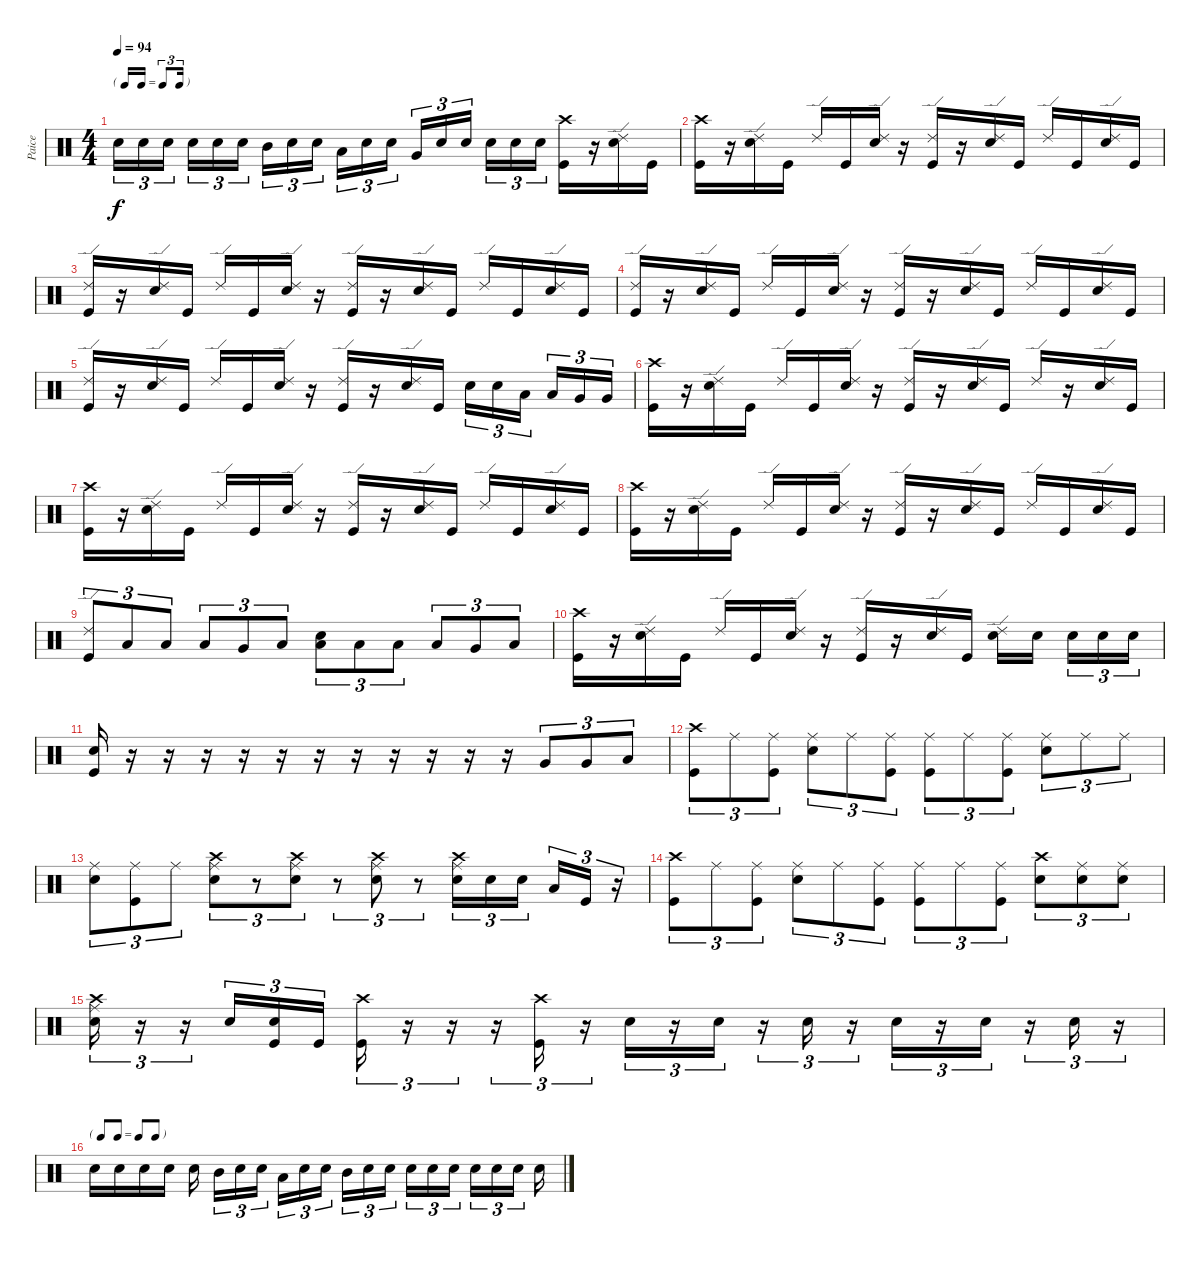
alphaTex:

\track ("Paice" "Paice") {instrument percussion}
\staff {score}
\articulation defaults
\ts (4 4)
\tf triplet16th
\tempo 94
\clef neutral
\ks c "Snare (hit) 2".16{tu (3 2) dy f} "Snare (hit) 2".16{tu (3 2)} "Snare (hit) 2".16{tu (3 2) beam splitsecondary} "Snare (hit) 2".16{tu (3 2)} "Snare (hit) 2".16{tu (3 2)} "Snare (hit) 2".16{tu (3 2)} "Mid Tom (hit)".16{tu (3 2)} "Snare (hit) 2".16{tu (3 2)} "Snare (hit) 2".16{tu (3 2) beam splitsecondary} "Low Tom (hit)".16{tu (3 2)} "Snare (hit) 2".16{tu (3 2)} "Snare (hit) 2".16{tu (3 2)} "Very Low Tom (hit)".16{tu (3 2)} "Snare (hit) 2".16{tu (3 2)} "Snare (hit) 2".16{tu (3 2) beam splitsecondary} "Snare (hit) 2".16{tu (3 2)} "Snare (hit) 2".16{tu (3 2)} "Snare (hit) 2".16{tu (3 2)}
("Kick (hit)" "Crash high (hit)").16 r.16 ("Ride (edge) 2" "Snare (hit) 2").16 "Kick (hit)".16 |
("Crash high (hit)" "Kick (hit)").16 r.16 ("Ride (edge) 2" "Snare (hit) 2").16 "Kick (hit)".16 "Ride (edge) 2".16 "Kick (hit)".16 ("Ride (edge) 2" "Snare (hit) 2").16 r.16 ("Ride (edge) 2" "Kick (hit)").16 r.16 ("Ride (edge) 2" "Snare (hit) 2").16 "Kick (hit)".16 "Ride (edge) 2".16 "Kick (hit)".16 ("Ride (edge) 2" "Snare (hit) 2").16 "Kick (hit)".16 |
("Ride (edge) 2" "Kick (hit)").16 r.16 ("Ride (edge) 2" "Snare (hit) 2").16 "Kick (hit)".16 "Ride (edge) 2".16 "Kick (hit)".16 ("Ride (edge) 2" "Snare (hit) 2").16 r.16 ("Ride (edge) 2" "Kick (hit)").16 r.16 ("Ride (edge) 2" "Snare (hit) 2").16 "Kick (hit)".16 "Ride (edge) 2".16 "Kick (hit)".16 ("Ride (edge) 2" "Snare (hit) 2").16 "Kick (hit)".16 |
("Ride (edge) 2" "Kick (hit)").16 r.16 ("Ride (edge) 2" "Snare (hit) 2").16 "Kick (hit)".16 "Ride (edge) 2".16 "Kick (hit)".16 ("Ride (edge) 2" "Snare (hit) 2").16 r.16 ("Ride (edge) 2" "Kick (hit)").16 r.16 ("Ride (edge) 2" "Snare (hit) 2").16 "Kick (hit)".16 "Ride (edge) 2".16 "Kick (hit)".16 ("Ride (edge) 2" "Snare (hit) 2").16 "Kick (hit)".16 |
("Ride (edge) 2" "Kick (hit)").16 r.16 ("Ride (edge) 2" "Snare (hit) 2").16 "Kick (hit)".16 "Ride (edge) 2".16 "Kick (hit)".16 ("Ride (edge) 2" "Snare (hit) 2").16 r.16 ("Ride (edge) 2" "Kick (hit)").16 r.16 ("Ride (edge) 2" "Snare (hit) 2").16 "Kick (hit)".16 "Snare (hit) 2".16{tu (3 2)} "Snare (hit) 2".16{tu (3 2)} "Low Tom (hit)".16{tu (3 2) beam splitsecondary} "Low Tom (hit)".16{tu (3 2)} "Very Low Tom (hit)".16{tu (3 2)} "Very Low Tom (hit)".16{tu (3 2)} |
("Crash high (hit)" "Kick (hit)").16 r.16 ("Ride (edge) 2" "Snare (hit) 2").16 "Kick (hit)".16 "Ride (edge) 2".16 "Kick (hit)".16 ("Ride (edge) 2" "Snare (hit) 2").16 r.16 ("Ride (edge) 2" "Kick (hit)").16 r.16 ("Ride (edge) 2" "Snare (hit) 2").16 "Kick (hit)".16 "Ride (edge) 2".16 r.16 ("Ride (edge) 2" "Snare (hit) 2").16 "Kick (hit)".16 |
("Crash high (hit)" "Kick (hit)").16 r.16 ("Ride (edge) 2" "Snare (hit) 2").16 "Kick (hit)".16 "Ride (edge) 2".16 "Kick (hit)".16 ("Ride (edge) 2" "Snare (hit) 2").16 r.16 ("Ride (edge) 2" "Kick (hit)").16 r.16 ("Ride (edge) 2" "Snare (hit) 2").16 "Kick (hit)".16 "Ride (edge) 2".16 "Kick (hit)".16 ("Ride (edge) 2" "Snare (hit) 2").16 "Kick (hit)".16 |
("Crash high (hit)" "Kick (hit)").16 r.16 ("Ride (edge) 2" "Snare (hit) 2").16 "Kick (hit)".16 "Ride (edge) 2".16 "Kick (hit)".16 ("Ride (edge) 2" "Snare (hit) 2").16 r.16 ("Ride (edge) 2" "Kick (hit)").16 r.16 ("Ride (edge) 2" "Snare (hit) 2").16 "Kick (hit)".16 "Ride (edge) 2".16 "Kick (hit)".16 ("Ride (edge) 2" "Snare (hit) 2").16 "Kick (hit)".16 |
("Ride (edge) 2" "Kick (hit)").8{tu (3 2)} "Low Tom (hit)".8{tu (3 2)} "Low Tom (hit)".8{tu (3 2)} "Low Tom (hit)".8{tu (3 2)} "Very Low Tom (hit)".8{tu (3 2)} "Low Floor Tom (hit)".8{tu (3 2)} ("Low Tom (hit)" "Snare (hit) 2").8{tu (3 2)} "Low Tom (hit)".8{tu (3 2)} "Low Tom (hit)".8{tu (3 2)} "Low Tom (hit)".8{tu (3 2)} "Very Low Tom (hit)".8{tu (3 2)} "Low Floor Tom (hit)".8{tu (3 2)} |
("Crash high (hit)" "Kick (hit)").16 r.16 ("Ride (edge) 2" "Snare (hit) 2").16 "Kick (hit)".16 "Ride (edge) 2".16 "Kick (hit)".16 ("Ride (edge) 2" "Snare (hit) 2").16 r.16 ("Ride (edge) 2" "Kick (hit)").16 r.16 ("Ride (edge) 2" "Snare (hit) 2").16 "Kick (hit)".16 ("Ride (edge) 2" "Snare (hit) 2").16 "Snare (hit) 2".16{beam splitsecondary} "Snare (hit) 2".16{tu (3 2)} "Snare (hit) 2".16{tu (3 2)} "Snare (hit) 2".16{tu (3 2)} |
("Snare (hit) 2" "Kick (hit)").16 r.16 r.16 r.16 r.16 r.16 r.16 r.16 r.16 r.16 r.16 r.16 "Very Low Tom (hit)".8{tu (3 2)} "Very Low Tom (hit)".8{tu (3 2)} "Low Floor Tom (hit)".8{tu (3 2)} |
("Crash high (hit)" "Kick (hit)").8{tu (3 2)} "Ride (middle)".8{tu (3 2)} ("Ride (middle)" "Kick (hit)").8{tu (3 2)} ("Ride (middle)" "Snare (hit) 2").8{tu (3 2)} "Ride (middle)".8{tu (3 2)} ("Ride (middle)" "Kick (hit)").8{tu (3 2)} ("Ride (middle)" "Kick (hit)").8{tu (3 2)} "Ride (middle)".8{tu (3 2)} ("Ride (middle)" "Kick (hit)").8{tu (3 2)} ("Ride (middle)" "Snare (hit) 2").8{tu (3 2)} "Ride (middle)".8{tu (3 2)} "Ride (middle)".8{tu (3 2)} |
("Ride (middle)" "Snare (hit) 2").8{tu (3 2)} ("Ride (middle)" "Kick (hit)").8{tu (3 2)} "Ride (middle)".8{tu (3 2)} ("Crash high (hit)" "Ride (middle)" "Snare (hit) 2").8{tu (3 2)} r.8{tu (3 2)} ("Crash high (hit)" "Ride (middle)" "Snare (hit) 2").8{tu (3 2)} r.8{tu (3 2)} ("Crash high (hit)" "Ride (middle)" "Snare (hit) 2").8{tu (3 2)} r.8{tu (3 2)} ("Crash high (hit)" "Ride (middle)" "Snare (hit) 2").16{tu (3 2)} "Snare (hit) 2".16{tu (3 2)} "Snare (hit) 2".16{tu (3 2) beam splitsecondary} "Low Tom (hit)".16{tu (3 2)} "Kick (hit)".16{tu (3 2)} r.16{tu (3 2)} |
("Crash high (hit)" "Kick (hit)").8{tu (3 2)} "Ride (middle)".8{tu (3 2)} ("Ride (middle)" "Kick (hit)").8{tu (3 2)} ("Ride (middle)" "Snare (hit) 2").8{tu (3 2)} "Ride (middle)".8{tu (3 2)} ("Ride (middle)" "Kick (hit)").8{tu (3 2)} ("Ride (middle)" "Kick (hit)").8{tu (3 2)} "Ride (middle)".8{tu (3 2)} ("Ride (middle)" "Kick (hit)").8{tu (3 2)} ("Crash high (hit)" "Snare (hit) 2").8{tu (3 2)} ("Ride (middle)" "Snare (hit) 2").8{tu (3 2)} ("Ride (middle)" "Snare (hit) 2").8{tu (3 2)} |
("Crash high (hit)" "Ride (middle)" "Snare (hit) 2").16{tu (3 2)} r.16{tu (3 2)} r.16{tu (3 2)} "Snare (hit) 2".16{tu (3 2)} ("Snare (hit) 2" "Kick (hit)").16{tu (3 2)} "Kick (hit)".16{tu (3 2)} ("Crash high (hit)" "Kick (hit)").16{tu (3 2)} r.16{tu (3 2)} r.16{tu (3 2)} r.16{tu (3 2)} ("Crash high (hit)" "Kick (hit)").16{tu (3 2)} r.16{tu (3 2)} "Snare (hit) 2".16{tu (3 2)} r.16{tu (3 2)} "Snare (hit) 2".16{tu (3 2)} r.16{tu (3 2)} "Snare (hit) 2".16{tu (3 2)} r.16{tu (3 2)} "Snare (hit) 2".16{tu (3 2)} r.16{tu (3 2)} "Snare (hit) 2".16{tu (3 2)} r.16{tu (3 2)} "Snare (hit) 2".16{tu (3 2)} r.16{tu (3 2)} |
\tf none "Snare (hit) 2".16 "Snare (hit) 2".16 "Snare (hit) 2".16 "Snare (hit) 2".16 "Snare (hit) 2".16{beam splitsecondary} "Mid Tom (hit)".16{tu (3 2)} "Snare (hit) 2".16{tu (3 2)} "Snare (hit) 2".16{tu (3 2) beam splitsecondary} "Low Tom (hit)".16{tu (3 2)} "Snare (hit) 2".16{tu (3 2)} "Snare (hit) 2".16{tu (3 2) beam splitsecondary} "Mid Tom (hit)".16{tu (3 2)} "Snare (hit) 2".16{tu (3 2)} "Snare (hit) 2".16{tu (3 2) beam splitsecondary} "Snare (hit) 2".16{tu (3 2)} "Snare (hit) 2".16{tu (3 2)} "Snare (hit) 2".16{tu (3 2) beam splitsecondary} "Snare (hit) 2".16{tu (3 2)} "Snare (hit) 2".16{tu (3 2)} "Snare (hit) 2".16{tu (3 2) beam splitsecondary} "Snare (hit) 2".16
